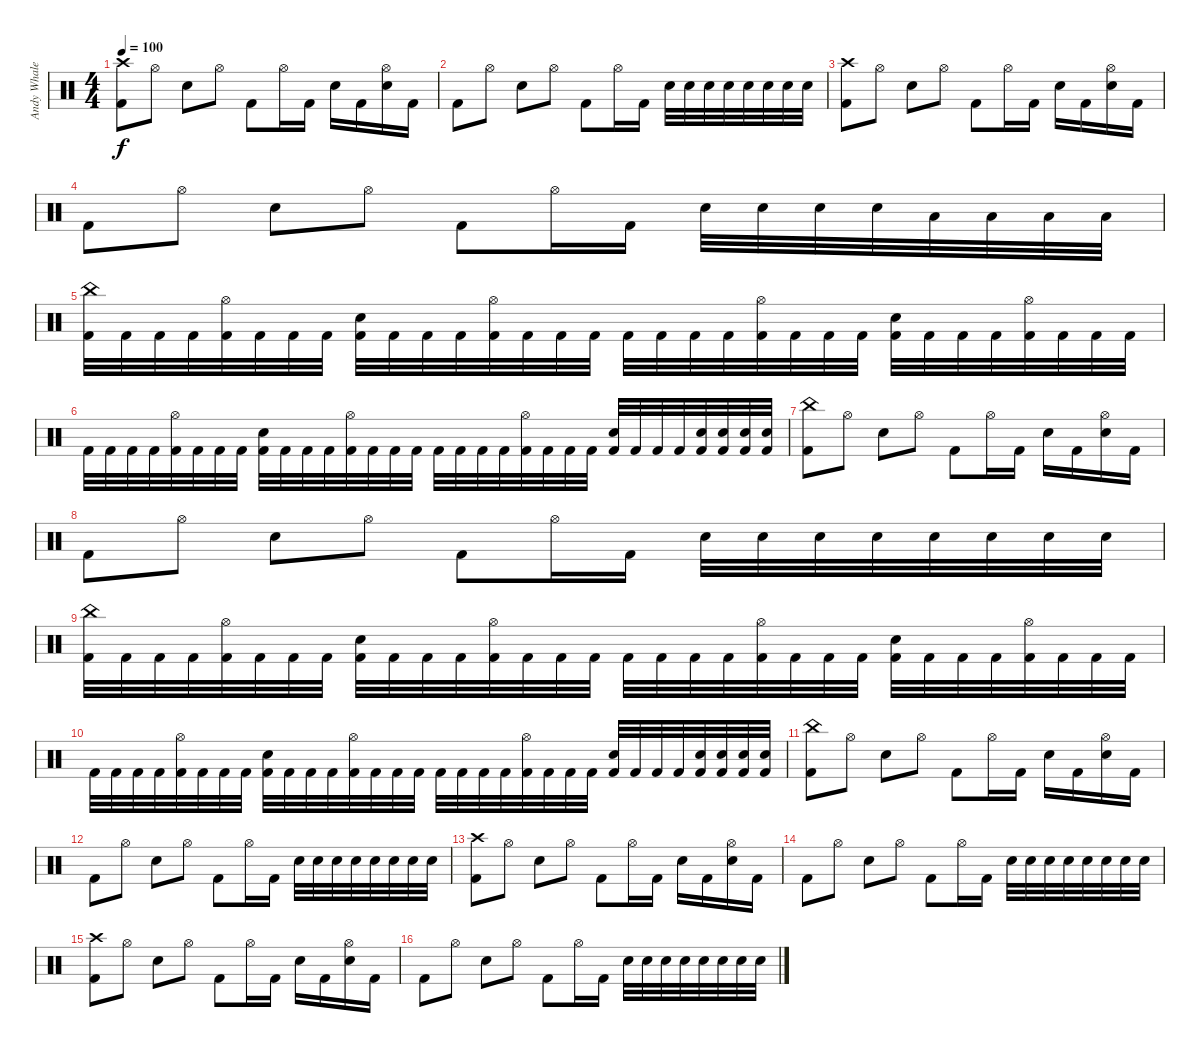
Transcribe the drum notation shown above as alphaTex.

\track ("Andy Whale" "Andy Whale") {instrument percussion}
\staff {score}
\articulation defaults
\ts (4 4)
\tempo 100
\clef neutral
\ks c
("Crash high (hit)" "Kick (hit) 2").8{dy f} "Hi-Hat (open)".8 "Snare (hit) 2".8 "Hi-Hat (open)".8 "Kick (hit) 2".8 "Hi-Hat (open)".16 "Kick (hit) 2".16 "Snare (hit) 2".16 "Kick (hit) 2".16 ("Hi-Hat (open)" "Snare (hit) 2").16 "Kick (hit) 2".16 |
"Kick (hit) 2".8 "Hi-Hat (open)".8 "Snare (hit) 2".8 "Hi-Hat (open)".8 "Kick (hit) 2".8 "Hi-Hat (open)".16 "Kick (hit) 2".16 "Snare (hit) 2".32 "Snare (hit) 2".32 "Snare (hit) 2".32 "Snare (hit) 2".32 "Snare (hit) 2".32 "Snare (hit) 2".32 "Snare (hit) 2".32 "Snare (hit) 2".32 |
("Crash high (hit)" "Kick (hit) 2").8 "Hi-Hat (open)".8 "Snare (hit) 2".8 "Hi-Hat (open)".8 "Kick (hit) 2".8 "Hi-Hat (open)".16 "Kick (hit) 2".16 "Snare (hit) 2".16 "Kick (hit) 2".16 ("Hi-Hat (open)" "Snare (hit) 2").16 "Kick (hit) 2".16 |
"Kick (hit) 2".8 "Hi-Hat (open)".8 "Snare (hit) 2".8 "Hi-Hat (open)".8 "Kick (hit) 2".8 "Hi-Hat (open)".16 "Kick (hit) 2".16 "Snare (hit) 2".32 "Snare (hit) 2".32 "Snare (hit) 2".32 "Snare (hit) 2".32 "Low Floor Tom (hit)".32 "Low Floor Tom (hit)".32 "Low Floor Tom (hit)".32 "Low Floor Tom (hit)".32 |
("China (hit)" "Kick (hit) 2").32 "Kick (hit) 2".32 "Kick (hit) 2".32 "Kick (hit) 2".32 ("Hi-Hat (open)" "Kick (hit) 2").32 "Kick (hit) 2".32 "Kick (hit) 2".32 "Kick (hit) 2".32 ("Snare (hit) 2" "Kick (hit) 2").32 "Kick (hit) 2".32 "Kick (hit) 2".32 "Kick (hit) 2".32 ("Hi-Hat (open)" "Kick (hit) 2").32 "Kick (hit) 2".32 "Kick (hit) 2".32 "Kick (hit) 2".32 "Kick (hit) 2".32 "Kick (hit) 2".32 "Kick (hit) 2".32 "Kick (hit) 2".32 ("Hi-Hat (open)" "Kick (hit) 2").32 "Kick (hit) 2".32 "Kick (hit) 2".32 "Kick (hit) 2".32 ("Snare (hit) 2" "Kick (hit) 2").32 "Kick (hit) 2".32 "Kick (hit) 2".32 "Kick (hit) 2".32 ("Hi-Hat (open)" "Kick (hit) 2").32 "Kick (hit) 2".32 "Kick (hit) 2".32 "Kick (hit) 2".32 |
"Kick (hit) 2".32 "Kick (hit) 2".32 "Kick (hit) 2".32 "Kick (hit) 2".32 ("Hi-Hat (open)" "Kick (hit) 2").32 "Kick (hit) 2".32 "Kick (hit) 2".32 "Kick (hit) 2".32 ("Snare (hit) 2" "Kick (hit) 2").32 "Kick (hit) 2".32 "Kick (hit) 2".32 "Kick (hit) 2".32 ("Hi-Hat (open)" "Kick (hit) 2").32 "Kick (hit) 2".32 "Kick (hit) 2".32 "Kick (hit) 2".32 "Kick (hit) 2".32 "Kick (hit) 2".32 "Kick (hit) 2".32 "Kick (hit) 2".32 ("Hi-Hat (open)" "Kick (hit) 2").32 "Kick (hit) 2".32 "Kick (hit) 2".32 "Kick (hit) 2".32 ("Snare (hit) 2" "Kick (hit) 2").32 "Kick (hit) 2".32 "Kick (hit) 2".32 "Kick (hit) 2".32 ("Snare (hit) 2" "Kick (hit) 2").32 ("Snare (hit) 2" "Kick (hit) 2").32 ("Snare (hit) 2" "Kick (hit) 2").32 ("Snare (hit) 2" "Kick (hit) 2").32 |
("China (hit)" "Kick (hit) 2").8 "Hi-Hat (open)".8 "Snare (hit) 2".8 "Hi-Hat (open)".8 "Kick (hit) 2".8 "Hi-Hat (open)".16 "Kick (hit) 2".16 "Snare (hit) 2".16 "Kick (hit) 2".16 ("Hi-Hat (open)" "Snare (hit) 2").16 "Kick (hit) 2".16 |
"Kick (hit) 2".8 "Hi-Hat (open)".8 "Snare (hit) 2".8 "Hi-Hat (open)".8 "Kick (hit) 2".8 "Hi-Hat (open)".16 "Kick (hit) 2".16 "Snare (hit) 2".32 "Snare (hit) 2".32 "Snare (hit) 2".32 "Snare (hit) 2".32 "Snare (hit) 2".32 "Snare (hit) 2".32 "Snare (hit) 2".32 "Snare (hit) 2".32 |
("China (hit)" "Kick (hit) 2").32 "Kick (hit) 2".32 "Kick (hit) 2".32 "Kick (hit) 2".32 ("Hi-Hat (open)" "Kick (hit) 2").32 "Kick (hit) 2".32 "Kick (hit) 2".32 "Kick (hit) 2".32 ("Snare (hit) 2" "Kick (hit) 2").32 "Kick (hit) 2".32 "Kick (hit) 2".32 "Kick (hit) 2".32 ("Hi-Hat (open)" "Kick (hit) 2").32 "Kick (hit) 2".32 "Kick (hit) 2".32 "Kick (hit) 2".32 "Kick (hit) 2".32 "Kick (hit) 2".32 "Kick (hit) 2".32 "Kick (hit) 2".32 ("Hi-Hat (open)" "Kick (hit) 2").32 "Kick (hit) 2".32 "Kick (hit) 2".32 "Kick (hit) 2".32 ("Snare (hit) 2" "Kick (hit) 2").32 "Kick (hit) 2".32 "Kick (hit) 2".32 "Kick (hit) 2".32 ("Hi-Hat (open)" "Kick (hit) 2").32 "Kick (hit) 2".32 "Kick (hit) 2".32 "Kick (hit) 2".32 |
"Kick (hit) 2".32 "Kick (hit) 2".32 "Kick (hit) 2".32 "Kick (hit) 2".32 ("Hi-Hat (open)" "Kick (hit) 2").32 "Kick (hit) 2".32 "Kick (hit) 2".32 "Kick (hit) 2".32 ("Snare (hit) 2" "Kick (hit) 2").32 "Kick (hit) 2".32 "Kick (hit) 2".32 "Kick (hit) 2".32 ("Hi-Hat (open)" "Kick (hit) 2").32 "Kick (hit) 2".32 "Kick (hit) 2".32 "Kick (hit) 2".32 "Kick (hit) 2".32 "Kick (hit) 2".32 "Kick (hit) 2".32 "Kick (hit) 2".32 ("Hi-Hat (open)" "Kick (hit) 2").32 "Kick (hit) 2".32 "Kick (hit) 2".32 "Kick (hit) 2".32 ("Snare (hit) 2" "Kick (hit) 2").32 "Kick (hit) 2".32 "Kick (hit) 2".32 "Kick (hit) 2".32 ("Snare (hit) 2" "Kick (hit) 2").32 ("Snare (hit) 2" "Kick (hit) 2").32 ("Snare (hit) 2" "Kick (hit) 2").32 ("Snare (hit) 2" "Kick (hit) 2").32 |
("China (hit)" "Kick (hit) 2").8 "Hi-Hat (open)".8 "Snare (hit) 2".8 "Hi-Hat (open)".8 "Kick (hit) 2".8 "Hi-Hat (open)".16 "Kick (hit) 2".16 "Snare (hit) 2".16 "Kick (hit) 2".16 ("Hi-Hat (open)" "Snare (hit) 2").16 "Kick (hit) 2".16 |
"Kick (hit) 2".8 "Hi-Hat (open)".8 "Snare (hit) 2".8 "Hi-Hat (open)".8 "Kick (hit) 2".8 "Hi-Hat (open)".16 "Kick (hit) 2".16 "Snare (hit) 2".32 "Snare (hit) 2".32 "Snare (hit) 2".32 "Snare (hit) 2".32 "Snare (hit) 2".32 "Snare (hit) 2".32 "Snare (hit) 2".32 "Snare (hit) 2".32 |
("Crash high (hit)" "Kick (hit) 2").8 "Hi-Hat (open)".8 "Snare (hit) 2".8 "Hi-Hat (open)".8 "Kick (hit) 2".8 "Hi-Hat (open)".16 "Kick (hit) 2".16 "Snare (hit) 2".16 "Kick (hit) 2".16 ("Hi-Hat (open)" "Snare (hit) 2").16 "Kick (hit) 2".16 |
"Kick (hit) 2".8 "Hi-Hat (open)".8 "Snare (hit) 2".8 "Hi-Hat (open)".8 "Kick (hit) 2".8 "Hi-Hat (open)".16 "Kick (hit) 2".16 "Snare (hit) 2".32 "Snare (hit) 2".32 "Snare (hit) 2".32 "Snare (hit) 2".32 "Snare (hit) 2".32 "Snare (hit) 2".32 "Snare (hit) 2".32 "Snare (hit) 2".32 |
("Crash high (hit)" "Kick (hit) 2").8 "Hi-Hat (open)".8 "Snare (hit) 2".8 "Hi-Hat (open)".8 "Kick (hit) 2".8 "Hi-Hat (open)".16 "Kick (hit) 2".16 "Snare (hit) 2".16 "Kick (hit) 2".16 ("Hi-Hat (open)" "Snare (hit) 2").16 "Kick (hit) 2".16 |
"Kick (hit) 2".8 "Hi-Hat (open)".8 "Snare (hit) 2".8 "Hi-Hat (open)".8 "Kick (hit) 2".8 "Hi-Hat (open)".16 "Kick (hit) 2".16 "Snare (hit) 2".32 "Snare (hit) 2".32 "Snare (hit) 2".32 "Snare (hit) 2".32 "Snare (hit) 2".32 "Snare (hit) 2".32 "Snare (hit) 2".32 "Snare (hit) 2".32
